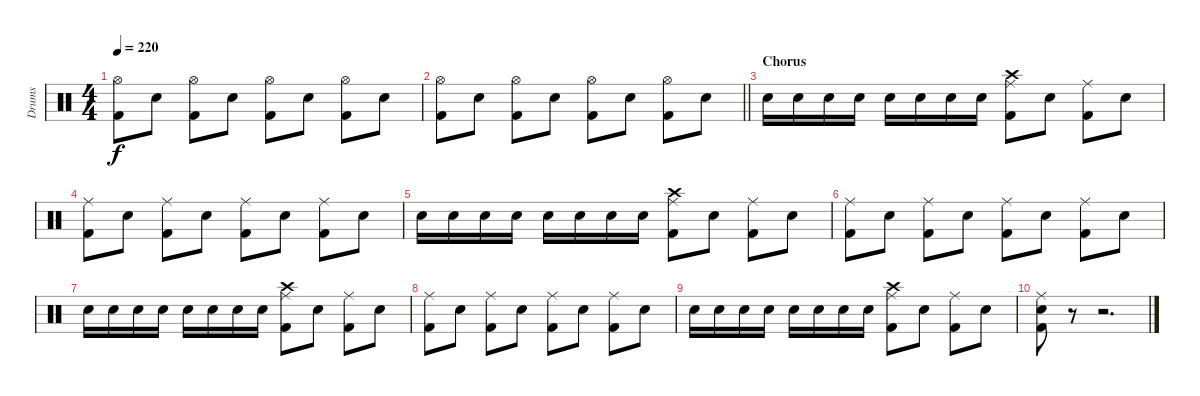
\track ("Drums" "Drums") {instrument percussion}
\staff {score}
\articulation defaults
\ts (4 4)
\tempo 220
\clef neutral
\ks c
("Kick (hit) 2" "Hi-Hat (open)").8{dy f} "Snare (hit) 2".8 ("Kick (hit) 2" "Hi-Hat (open)").8 "Snare (hit) 2".8 ("Kick (hit) 2" "Hi-Hat (open)").8 "Snare (hit) 2".8 ("Kick (hit) 2" "Hi-Hat (open)").8 "Snare (hit) 2".8 |
\barLineRight lightlight
("Kick (hit) 2" "Hi-Hat (open)").8 "Snare (hit) 2".8 ("Kick (hit) 2" "Hi-Hat (open)").8 "Snare (hit) 2".8 ("Kick (hit) 2" "Hi-Hat (open)").8 "Snare (hit) 2".8 ("Kick (hit) 2" "Hi-Hat (open)").8 "Snare (hit) 2".8 |
\section ("" "Chorus")
"Snare (hit) 2".16 "Snare (hit) 2".16 "Snare (hit) 2".16 "Snare (hit) 2".16 "Snare (hit) 2".16 "Snare (hit) 2".16 "Snare (hit) 2".16 "Snare (hit) 2".16 ("Kick (hit) 2" "Ride (middle)" "Crash high (hit)").8 "Snare (hit) 2".8 ("Kick (hit) 2" "Ride (middle)").8 "Snare (hit) 2".8 |
("Kick (hit) 2" "Ride (middle)").8 "Snare (hit) 2".8 ("Kick (hit) 2" "Ride (middle)").8 "Snare (hit) 2".8 ("Kick (hit) 2" "Ride (middle)").8 "Snare (hit) 2".8 ("Kick (hit) 2" "Ride (middle)").8 "Snare (hit) 2".8 |
"Snare (hit) 2".16 "Snare (hit) 2".16 "Snare (hit) 2".16 "Snare (hit) 2".16 "Snare (hit) 2".16 "Snare (hit) 2".16 "Snare (hit) 2".16 "Snare (hit) 2".16 ("Kick (hit) 2" "Ride (middle)" "Crash high (hit)").8 "Snare (hit) 2".8 ("Kick (hit) 2" "Ride (middle)").8 "Snare (hit) 2".8 |
("Kick (hit) 2" "Ride (middle)").8 "Snare (hit) 2".8 ("Kick (hit) 2" "Ride (middle)").8 "Snare (hit) 2".8 ("Kick (hit) 2" "Ride (middle)").8 "Snare (hit) 2".8 ("Kick (hit) 2" "Ride (middle)").8 "Snare (hit) 2".8 |
"Snare (hit) 2".16 "Snare (hit) 2".16 "Snare (hit) 2".16 "Snare (hit) 2".16 "Snare (hit) 2".16 "Snare (hit) 2".16 "Snare (hit) 2".16 "Snare (hit) 2".16 ("Kick (hit) 2" "Ride (middle)" "Crash high (hit)").8 "Snare (hit) 2".8 ("Kick (hit) 2" "Ride (middle)").8 "Snare (hit) 2".8 |
("Kick (hit) 2" "Ride (middle)").8 "Snare (hit) 2".8 ("Kick (hit) 2" "Ride (middle)").8 "Snare (hit) 2".8 ("Kick (hit) 2" "Ride (middle)").8 "Snare (hit) 2".8 ("Kick (hit) 2" "Ride (middle)").8 "Snare (hit) 2".8 |
"Snare (hit) 2".16 "Snare (hit) 2".16 "Snare (hit) 2".16 "Snare (hit) 2".16 "Snare (hit) 2".16 "Snare (hit) 2".16 "Snare (hit) 2".16 "Snare (hit) 2".16 ("Kick (hit) 2" "Ride (middle)" "Crash high (hit)").8 "Snare (hit) 2".8 ("Kick (hit) 2" "Ride (middle)").8 "Snare (hit) 2".8 |
("Kick (hit) 2" "Snare (hit) 2" "Ride (middle)").8 r.8 r.2{d}
